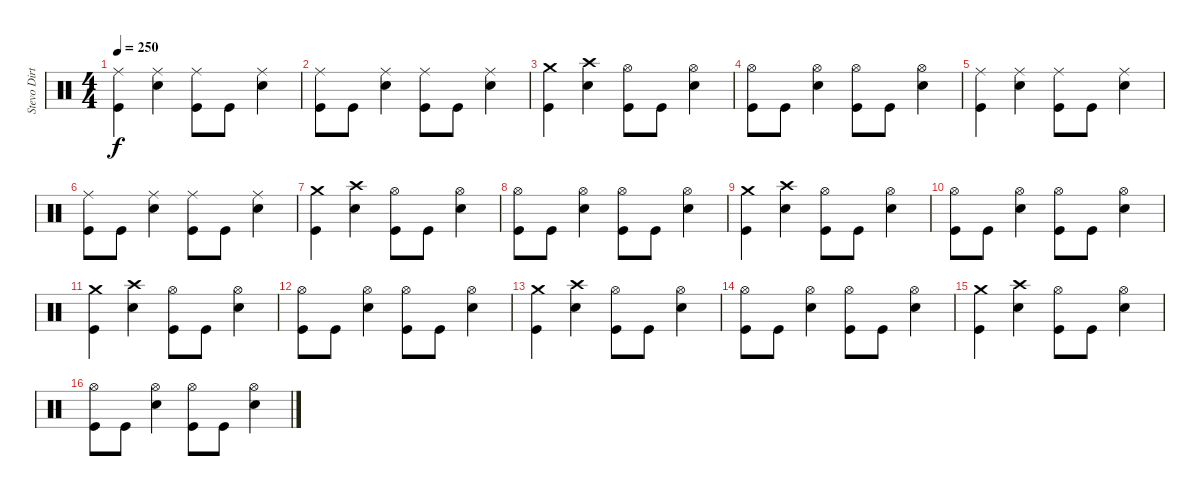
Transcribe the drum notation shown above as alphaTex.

\track ("Stevo Dirty Poo" "Stevo Dirt") {instrument percussion}
\staff {score}
\articulation defaults
\ts (4 4)
\tempo 250
\clef neutral
\ks c
("Ride (middle)" "Kick (hit)").4{dy f} ("Ride (middle)" "Snare (hit) 2").4 ("Ride (middle)" "Kick (hit)").8 "Kick (hit)".8 ("Ride (middle)" "Snare (hit) 2").4 |
("Ride (middle)" "Kick (hit)").8 "Kick (hit)".8 ("Ride (middle)" "Snare (hit) 2").4 ("Ride (middle)" "Kick (hit)").8 "Kick (hit)".8 ("Ride (middle)" "Snare (hit) 2").4 |
("Crash medium (hit)" "Kick (hit)").4 ("Crash high (hit)" "Snare (hit) 2").4 ("Hi-Hat (open)" "Kick (hit)").8 "Kick (hit)".8 ("Hi-Hat (open)" "Snare (hit) 2").4 |
("Hi-Hat (open)" "Kick (hit)").8 "Kick (hit)".8 ("Hi-Hat (open)" "Snare (hit) 2").4 ("Hi-Hat (open)" "Kick (hit)").8 "Kick (hit)".8 ("Hi-Hat (open)" "Snare (hit) 2").4 |
("Ride (middle)" "Kick (hit)").4 ("Ride (middle)" "Snare (hit) 2").4 ("Ride (middle)" "Kick (hit)").8 "Kick (hit)".8 ("Ride (middle)" "Snare (hit) 2").4 |
("Ride (middle)" "Kick (hit)").8 "Kick (hit)".8 ("Ride (middle)" "Snare (hit) 2").4 ("Ride (middle)" "Kick (hit)").8 "Kick (hit)".8 ("Ride (middle)" "Snare (hit) 2").4 |
("Crash medium (hit)" "Kick (hit)").4 ("Crash high (hit)" "Snare (hit) 2").4 ("Hi-Hat (open)" "Kick (hit)").8 "Kick (hit)".8 ("Hi-Hat (open)" "Snare (hit) 2").4 |
("Hi-Hat (open)" "Kick (hit)").8 "Kick (hit)".8 ("Hi-Hat (open)" "Snare (hit) 2").4 ("Hi-Hat (open)" "Kick (hit)").8 "Kick (hit)".8 ("Hi-Hat (open)" "Snare (hit) 2").4 |
("Crash medium (hit)" "Kick (hit)").4 ("Crash high (hit)" "Snare (hit) 2").4 ("Hi-Hat (open)" "Kick (hit)").8 "Kick (hit)".8 ("Hi-Hat (open)" "Snare (hit) 2").4 |
("Hi-Hat (open)" "Kick (hit)").8 "Kick (hit)".8 ("Hi-Hat (open)" "Snare (hit) 2").4 ("Hi-Hat (open)" "Kick (hit)").8 "Kick (hit)".8 ("Hi-Hat (open)" "Snare (hit) 2").4 |
("Crash medium (hit)" "Kick (hit)").4 ("Crash high (hit)" "Snare (hit) 2").4 ("Hi-Hat (open)" "Kick (hit)").8 "Kick (hit)".8 ("Hi-Hat (open)" "Snare (hit) 2").4 |
("Hi-Hat (open)" "Kick (hit)").8 "Kick (hit)".8 ("Hi-Hat (open)" "Snare (hit) 2").4 ("Hi-Hat (open)" "Kick (hit)").8 "Kick (hit)".8 ("Hi-Hat (open)" "Snare (hit) 2").4 |
("Crash medium (hit)" "Kick (hit)").4 ("Crash high (hit)" "Snare (hit) 2").4 ("Hi-Hat (open)" "Kick (hit)").8 "Kick (hit)".8 ("Hi-Hat (open)" "Snare (hit) 2").4 |
("Hi-Hat (open)" "Kick (hit)").8 "Kick (hit)".8 ("Hi-Hat (open)" "Snare (hit) 2").4 ("Hi-Hat (open)" "Kick (hit)").8 "Kick (hit)".8 ("Hi-Hat (open)" "Snare (hit) 2").4 |
("Crash medium (hit)" "Kick (hit)").4 ("Crash high (hit)" "Snare (hit) 2").4 ("Hi-Hat (open)" "Kick (hit)").8 "Kick (hit)".8 ("Hi-Hat (open)" "Snare (hit) 2").4 |
("Hi-Hat (open)" "Kick (hit)").8 "Kick (hit)".8 ("Hi-Hat (open)" "Snare (hit) 2").4 ("Hi-Hat (open)" "Kick (hit)").8 "Kick (hit)".8 ("Hi-Hat (open)" "Snare (hit) 2").4
